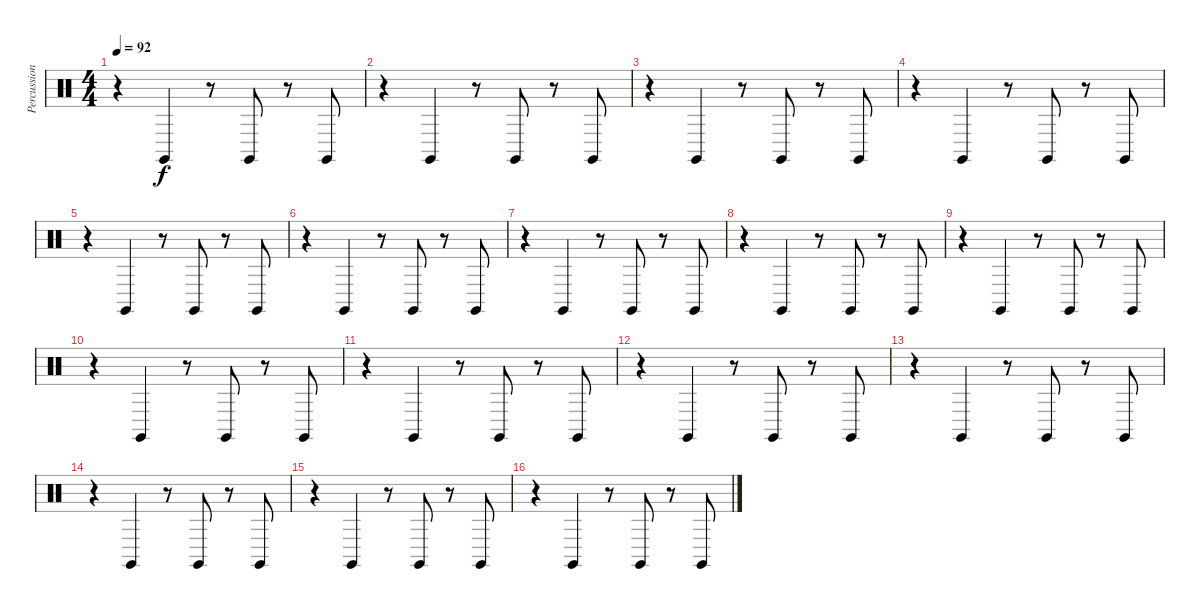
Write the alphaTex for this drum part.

\track ("Percussion" "Percussion") {instrument percussion}
\staff {score}
\articulation defaults
\ts (4 4)
\tempo 92
\clef neutral
\ks c
r.4{dy f} "Claves (hit)".4 r.8 "Claves (hit)".8 r.8 "Claves (hit)".8 |
r.4 "Claves (hit)".4 r.8 "Claves (hit)".8 r.8 "Claves (hit)".8 |
r.4 "Claves (hit)".4 r.8 "Claves (hit)".8 r.8 "Claves (hit)".8 |
r.4 "Claves (hit)".4 r.8 "Claves (hit)".8 r.8 "Claves (hit)".8 |
r.4 "Claves (hit)".4 r.8 "Claves (hit)".8 r.8 "Claves (hit)".8 |
r.4 "Claves (hit)".4 r.8 "Claves (hit)".8 r.8 "Claves (hit)".8 |
r.4 "Claves (hit)".4 r.8 "Claves (hit)".8 r.8 "Claves (hit)".8 |
r.4 "Claves (hit)".4 r.8 "Claves (hit)".8 r.8 "Claves (hit)".8 |
r.4 "Claves (hit)".4 r.8 "Claves (hit)".8 r.8 "Claves (hit)".8 |
r.4 "Claves (hit)".4 r.8 "Claves (hit)".8 r.8 "Claves (hit)".8 |
r.4 "Claves (hit)".4 r.8 "Claves (hit)".8 r.8 "Claves (hit)".8 |
r.4 "Claves (hit)".4 r.8 "Claves (hit)".8 r.8 "Claves (hit)".8 |
r.4 "Claves (hit)".4 r.8 "Claves (hit)".8 r.8 "Claves (hit)".8 |
r.4 "Claves (hit)".4 r.8 "Claves (hit)".8 r.8 "Claves (hit)".8 |
r.4 "Claves (hit)".4 r.8 "Claves (hit)".8 r.8 "Claves (hit)".8 |
r.4 "Claves (hit)".4 r.8 "Claves (hit)".8 r.8 "Claves (hit)".8
